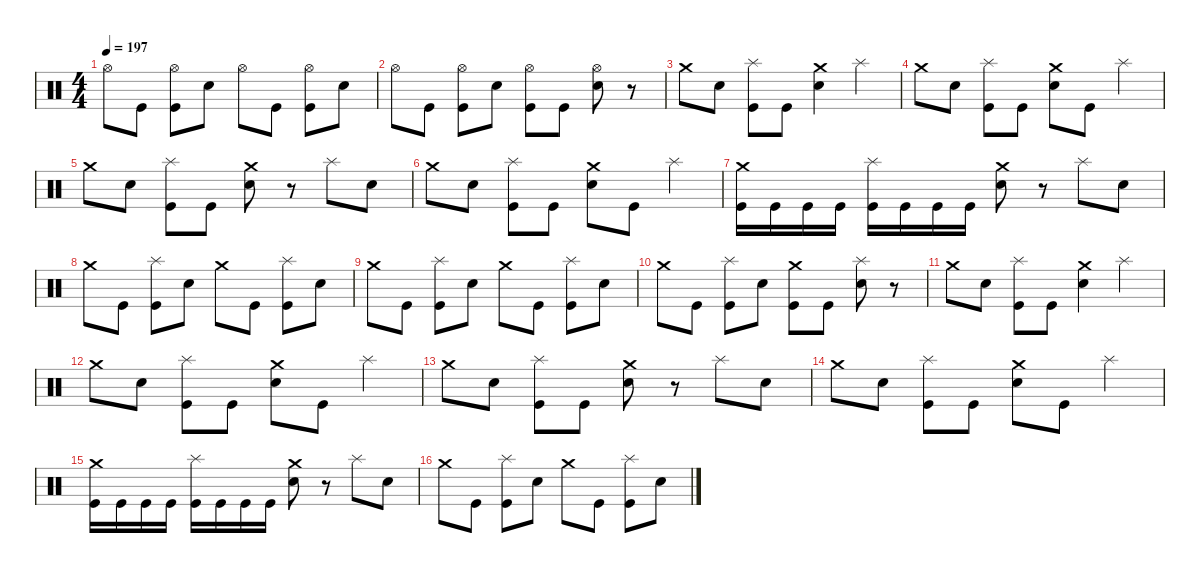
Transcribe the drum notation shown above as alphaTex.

\defaultSystemsLayout 4
\hideDynamics
\bracketExtendMode nobrackets
\singleTrackTrackNamePolicy hidden
\multiTrackTrackNamePolicy hidden
\firstSystemTrackNameMode fullname
\firstSystemTrackNameOrientation horizontal
\otherSystemsTrackNameOrientation horizontal
\track ("Drums" "drm.") {defaultSystemsLayout 4 instrument percussion}
\staff {score}
\articulation defaults
\ts (4 4)
\tempo 197
\clef neutral
\ks c "Hi-Hat (open)".8{dy mf beam Down} "Kick (hit)".8{dy f beam Down}
("Hi-Hat (open)" "Kick (hit)").8{dy mf beam Down} "Snare (hit) 2".8{dy f beam Down} "Hi-Hat (open)".8{dy mf beam Down} "Kick (hit)".8{dy f beam Down} ("Hi-Hat (open)" "Kick (hit)").8{dy mf beam Down} "Snare (hit) 2".8{dy f beam Down} |
"Hi-Hat (open)".8{dy mf beam Down} "Kick (hit)".8{dy f beam Down} ("Hi-Hat (open)" "Kick (hit)").8{dy mf beam Down} "Snare (hit) 2".8{dy f beam Down} ("Hi-Hat (open)" "Kick (hit)").8{dy mf beam Down} "Kick (hit)".8{dy f beam Down} ("Hi-Hat (open)" "Snare (hit) 2").8{dy mf beam Down} r.8{beam Down} |
"Crash medium (hit)".8{beam Down} "Snare (hit) 2".8{dy f beam Down} ("Splash (hit)" "Kick (hit)").8{dy mf beam Down} "Kick (hit)".8{dy f beam Down} ("Crash medium (hit)" "Snare (hit) 2").4{dy mf beam Down} "Splash (hit)".4{beam Down} |
"Crash medium (hit)".8{beam Down} "Snare (hit) 2".8{dy f beam Down} ("Splash (hit)" "Kick (hit)").8{dy mf beam Down} "Kick (hit)".8{dy f beam Down} ("Crash medium (hit)" "Snare (hit) 2").8{dy mf beam Down} "Kick (hit)".8{dy f beam Down} "Splash (hit)".4{dy mf beam Down} |
"Crash medium (hit)".8{beam Down} "Snare (hit) 2".8{dy f beam Down} ("Splash (hit)" "Kick (hit)").8{dy mf beam Down} "Kick (hit)".8{dy f beam Down} ("Crash medium (hit)" "Snare (hit) 2").8{dy mf beam Down} r.8{beam Down} "Splash (hit)".8{beam Down} "Snare (hit) 2".8{dy f beam Down} |
"Crash medium (hit)".8{dy mf beam Down} "Snare (hit) 2".8{dy f beam Down} ("Splash (hit)" "Kick (hit)").8{dy mf beam Down} "Kick (hit)".8{dy f beam Down} ("Crash medium (hit)" "Snare (hit) 2").8{dy mf beam Down} "Kick (hit)".8{dy f beam Down} "Splash (hit)".4{dy mf beam Down} |
("Crash medium (hit)" "Kick (hit)").16{beam Down} "Kick (hit)".16{dy f beam Down} "Kick (hit)".16{beam Down} "Kick (hit)".16{beam Down} ("Splash (hit)" "Kick (hit)").16{dy mf beam Down} "Kick (hit)".16{dy f beam Down} "Kick (hit)".16{beam Down} "Kick (hit)".16{beam Down} ("Crash medium (hit)" "Snare (hit) 2").8{dy mf beam Down} r.8{beam Down} "Splash (hit)".8{beam Down} "Snare (hit) 2".8{dy f beam Down} |
"Crash medium (hit)".8{dy mf beam Down} "Kick (hit)".8{dy f beam Down} ("Splash (hit)" "Kick (hit)").8{dy mf beam Down} "Snare (hit) 2".8{dy f beam Down} "Crash medium (hit)".8{dy mf beam Down} "Kick (hit)".8{dy f beam Down} ("Splash (hit)" "Kick (hit)").8{dy mf beam Down} "Snare (hit) 2".8{dy f beam Down} |
"Crash medium (hit)".8{dy mf beam Down} "Kick (hit)".8{dy f beam Down} ("Splash (hit)" "Kick (hit)").8{dy mf beam Down} "Snare (hit) 2".8{dy f beam Down} "Crash medium (hit)".8{dy mf beam Down} "Kick (hit)".8{dy f beam Down} ("Splash (hit)" "Kick (hit)").8{dy mf beam Down} "Snare (hit) 2".8{dy f beam Down} |
"Crash medium (hit)".8{dy mf beam Down} "Kick (hit)".8{dy f beam Down} ("Splash (hit)" "Kick (hit)").8{dy mf beam Down} "Snare (hit) 2".8{dy f beam Down} ("Crash medium (hit)" "Kick (hit)").8{dy mf beam Down} "Kick (hit)".8{dy f beam Down} ("Splash (hit)" "Snare (hit) 2").8{dy mf beam Down} r.8{beam Down} |
"Crash medium (hit)".8{beam Down} "Snare (hit) 2".8{dy f beam Down} ("Splash (hit)" "Kick (hit)").8{dy mf beam Down} "Kick (hit)".8{dy f beam Down} ("Crash medium (hit)" "Snare (hit) 2").4{dy mf beam Down} "Splash (hit)".4{beam Down} |
"Crash medium (hit)".8{beam Down} "Snare (hit) 2".8{dy f beam Down} ("Splash (hit)" "Kick (hit)").8{dy mf beam Down} "Kick (hit)".8{dy f beam Down} ("Crash medium (hit)" "Snare (hit) 2").8{dy mf beam Down} "Kick (hit)".8{dy f beam Down} "Splash (hit)".4{dy mf beam Down} |
"Crash medium (hit)".8{beam Down} "Snare (hit) 2".8{dy f beam Down} ("Splash (hit)" "Kick (hit)").8{dy mf beam Down} "Kick (hit)".8{dy f beam Down} ("Crash medium (hit)" "Snare (hit) 2").8{dy mf beam Down} r.8{beam Down} "Splash (hit)".8{beam Down} "Snare (hit) 2".8{dy f beam Down} |
"Crash medium (hit)".8{dy mf beam Down} "Snare (hit) 2".8{dy f beam Down} ("Splash (hit)" "Kick (hit)").8{dy mf beam Down} "Kick (hit)".8{dy f beam Down} ("Crash medium (hit)" "Snare (hit) 2").8{dy mf beam Down} "Kick (hit)".8{dy f beam Down} "Splash (hit)".4{dy mf beam Down} |
("Crash medium (hit)" "Kick (hit)").16{beam Down} "Kick (hit)".16{dy f beam Down} "Kick (hit)".16{beam Down} "Kick (hit)".16{beam Down} ("Splash (hit)" "Kick (hit)").16{dy mf beam Down} "Kick (hit)".16{dy f beam Down} "Kick (hit)".16{beam Down} "Kick (hit)".16{beam Down} ("Crash medium (hit)" "Snare (hit) 2").8{dy mf beam Down} r.8{beam Down} "Splash (hit)".8{beam Down} "Snare (hit) 2".8{dy f beam Down} |
"Crash medium (hit)".8{dy mf beam Down} "Kick (hit)".8{dy f beam Down} ("Splash (hit)" "Kick (hit)").8{dy mf beam Down} "Snare (hit) 2".8{dy f beam Down} "Crash medium (hit)".8{dy mf beam Down} "Kick (hit)".8{dy f beam Down} ("Splash (hit)" "Kick (hit)").8{dy mf beam Down} "Snare (hit) 2".8{dy f beam Down}
